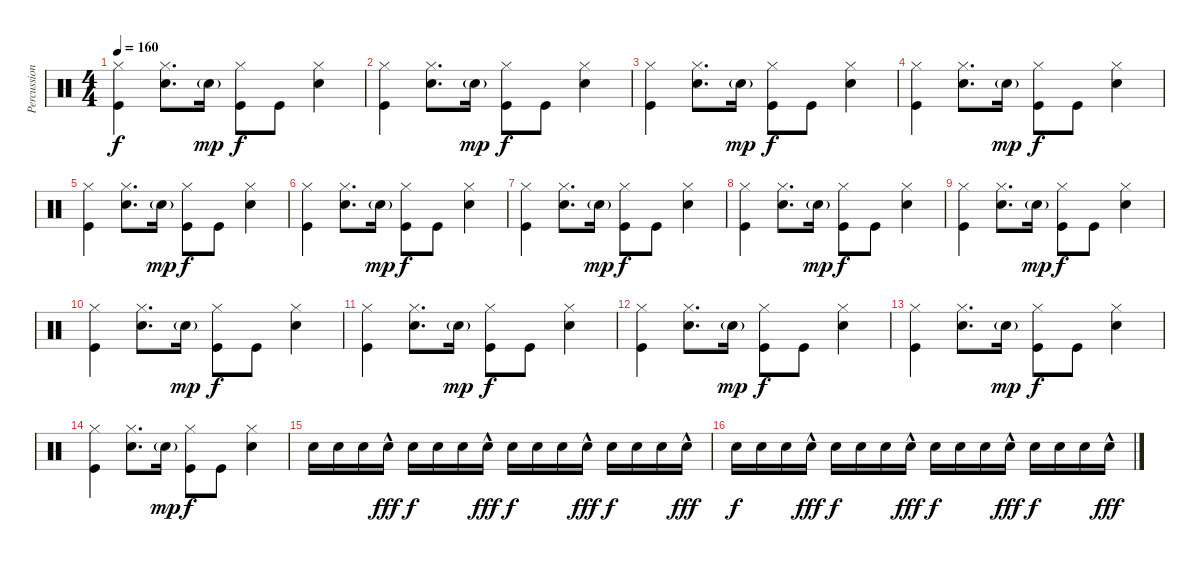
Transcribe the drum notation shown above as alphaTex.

\track ("Percussion" "Percussion") {instrument percussion}
\staff {score}
\articulation defaults
\ts (4 4)
\tempo 160
\clef neutral
\ks c
("Kick (hit)" "Hi-Hat (closed)").4{dy f} ("Snare (hit) 2" "Hi-Hat (closed)").8{d} "Snare (hit) 2"{g}.16{dy mp} ("Kick (hit)" "Hi-Hat (closed)").8{dy f} "Kick (hit)".8 ("Snare (hit) 2" "Hi-Hat (closed)").4 |
("Kick (hit)" "Hi-Hat (closed)").4 ("Snare (hit) 2" "Hi-Hat (closed)").8{d} "Snare (hit) 2"{g}.16{dy mp} ("Kick (hit)" "Hi-Hat (closed)").8{dy f} "Kick (hit)".8 ("Snare (hit) 2" "Hi-Hat (closed)").4 |
("Kick (hit)" "Hi-Hat (closed)").4 ("Snare (hit) 2" "Hi-Hat (closed)").8{d} "Snare (hit) 2"{g}.16{dy mp} ("Kick (hit)" "Hi-Hat (closed)").8{dy f} "Kick (hit)".8 ("Snare (hit) 2" "Hi-Hat (closed)").4 |
("Kick (hit)" "Hi-Hat (closed)").4 ("Snare (hit) 2" "Hi-Hat (closed)").8{d} "Snare (hit) 2"{g}.16{dy mp} ("Kick (hit)" "Hi-Hat (closed)").8{dy f} "Kick (hit)".8 ("Snare (hit) 2" "Hi-Hat (closed)").4 |
("Kick (hit)" "Hi-Hat (closed)").4 ("Snare (hit) 2" "Hi-Hat (closed)").8{d} "Snare (hit) 2"{g}.16{dy mp} ("Kick (hit)" "Hi-Hat (closed)").8{dy f} "Kick (hit)".8 ("Snare (hit) 2" "Hi-Hat (closed)").4 |
("Kick (hit)" "Hi-Hat (closed)").4 ("Snare (hit) 2" "Hi-Hat (closed)").8{d} "Snare (hit) 2"{g}.16{dy mp} ("Kick (hit)" "Hi-Hat (closed)").8{dy f} "Kick (hit)".8 ("Snare (hit) 2" "Hi-Hat (closed)").4 |
("Kick (hit)" "Hi-Hat (closed)").4 ("Snare (hit) 2" "Hi-Hat (closed)").8{d} "Snare (hit) 2"{g}.16{dy mp} ("Kick (hit)" "Hi-Hat (closed)").8{dy f} "Kick (hit)".8 ("Snare (hit) 2" "Hi-Hat (closed)").4 |
("Kick (hit)" "Hi-Hat (closed)").4 ("Snare (hit) 2" "Hi-Hat (closed)").8{d} "Snare (hit) 2"{g}.16{dy mp} ("Kick (hit)" "Hi-Hat (closed)").8{dy f} "Kick (hit)".8 ("Snare (hit) 2" "Hi-Hat (closed)").4 |
("Kick (hit)" "Hi-Hat (closed)").4 ("Snare (hit) 2" "Hi-Hat (closed)").8{d} "Snare (hit) 2"{g}.16{dy mp} ("Kick (hit)" "Hi-Hat (closed)").8{dy f} "Kick (hit)".8 ("Snare (hit) 2" "Hi-Hat (closed)").4 |
("Kick (hit)" "Hi-Hat (closed)").4 ("Snare (hit) 2" "Hi-Hat (closed)").8{d} "Snare (hit) 2"{g}.16{dy mp} ("Kick (hit)" "Hi-Hat (closed)").8{dy f} "Kick (hit)".8 ("Snare (hit) 2" "Hi-Hat (closed)").4 |
("Kick (hit)" "Hi-Hat (closed)").4 ("Snare (hit) 2" "Hi-Hat (closed)").8{d} "Snare (hit) 2"{g}.16{dy mp} ("Kick (hit)" "Hi-Hat (closed)").8{dy f} "Kick (hit)".8 ("Snare (hit) 2" "Hi-Hat (closed)").4 |
("Kick (hit)" "Hi-Hat (closed)").4 ("Snare (hit) 2" "Hi-Hat (closed)").8{d} "Snare (hit) 2"{g}.16{dy mp} ("Kick (hit)" "Hi-Hat (closed)").8{dy f} "Kick (hit)".8 ("Snare (hit) 2" "Hi-Hat (closed)").4 |
("Kick (hit)" "Hi-Hat (closed)").4 ("Snare (hit) 2" "Hi-Hat (closed)").8{d} "Snare (hit) 2"{g}.16{dy mp} ("Kick (hit)" "Hi-Hat (closed)").8{dy f} "Kick (hit)".8 ("Snare (hit) 2" "Hi-Hat (closed)").4 |
("Kick (hit)" "Hi-Hat (closed)").4 ("Snare (hit) 2" "Hi-Hat (closed)").8{d} "Snare (hit) 2"{g}.16{dy mp} ("Kick (hit)" "Hi-Hat (closed)").8{dy f} "Kick (hit)".8 ("Snare (hit) 2" "Hi-Hat (closed)").4 |
"Snare (hit) 2".16 "Snare (hit) 2".16 "Snare (hit) 2".16 "Snare (hit) 2"{hac}.16{dy fff} "Snare (hit) 2".16{dy f} "Snare (hit) 2".16 "Snare (hit) 2".16 "Snare (hit) 2"{hac}.16{dy fff} "Snare (hit) 2".16{dy f} "Snare (hit) 2".16 "Snare (hit) 2".16 "Snare (hit) 2"{hac}.16{dy fff} "Snare (hit) 2".16{dy f} "Snare (hit) 2".16 "Snare (hit) 2".16 "Snare (hit) 2"{hac}.16{dy fff} |
"Snare (hit) 2".16{dy f} "Snare (hit) 2".16 "Snare (hit) 2".16 "Snare (hit) 2"{hac}.16{dy fff} "Snare (hit) 2".16{dy f} "Snare (hit) 2".16 "Snare (hit) 2".16 "Snare (hit) 2"{hac}.16{dy fff} "Snare (hit) 2".16{dy f} "Snare (hit) 2".16 "Snare (hit) 2".16 "Snare (hit) 2"{hac}.16{dy fff} "Snare (hit) 2".16{dy f} "Snare (hit) 2".16 "Snare (hit) 2".16 "Snare (hit) 2"{hac}.16{dy fff}
